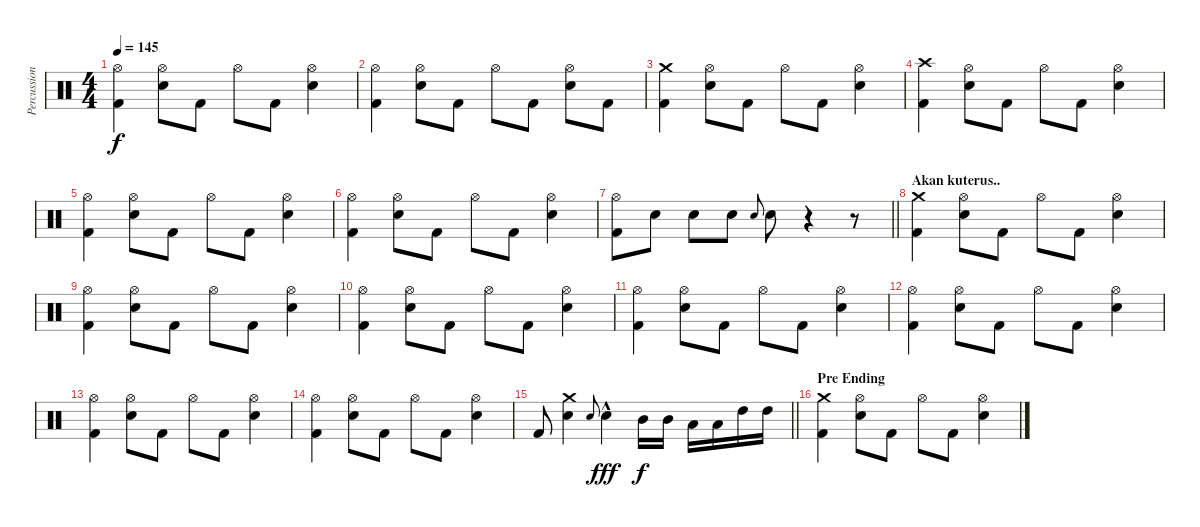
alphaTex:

\track ("Percussion" "Percussion") {instrument percussion}
\staff {score}
\articulation defaults
\ts (4 4)
\tempo 145
\clef neutral
\ks c
("Kick (hit) 2" "Hi-Hat (open)").4{dy f} ("Electric Snare (hit)" "Hi-Hat (open)").8 "Kick (hit) 2".8 "Hi-Hat (open)".8 "Kick (hit) 2".8 ("Electric Snare (hit)" "Hi-Hat (open)").4 |
("Kick (hit) 2" "Hi-Hat (open)").4 ("Electric Snare (hit)" "Hi-Hat (open)").8 "Kick (hit) 2".8 "Hi-Hat (open)".8 "Kick (hit) 2".8 ("Electric Snare (hit)" "Hi-Hat (open)").8 "Kick (hit) 2".8 |
("Kick (hit) 2" "Crash medium (hit)").4 ("Electric Snare (hit)" "Hi-Hat (open)").8 "Kick (hit) 2".8 "Hi-Hat (open)".8 "Kick (hit) 2".8 ("Electric Snare (hit)" "Hi-Hat (open)").4 |
("Kick (hit) 2" "Crash high (hit)").4 ("Electric Snare (hit)" "Hi-Hat (open)").8 "Kick (hit) 2".8 "Hi-Hat (open)".8 "Kick (hit) 2".8 ("Electric Snare (hit)" "Hi-Hat (open)").4 |
("Kick (hit) 2" "Hi-Hat (open)").4 ("Electric Snare (hit)" "Hi-Hat (open)").8 "Kick (hit) 2".8 "Hi-Hat (open)".8 "Kick (hit) 2".8 ("Electric Snare (hit)" "Hi-Hat (open)").4 |
("Kick (hit) 2" "Hi-Hat (open)").4 ("Electric Snare (hit)" "Hi-Hat (open)").8 "Kick (hit) 2".8 "Hi-Hat (open)".8 "Kick (hit) 2".8 ("Electric Snare (hit)" "Hi-Hat (open)").4 |
\barLineRight lightlight
("Kick (hit) 2" "Hi-Hat (open)").8 "Electric Snare (hit)".8 "Electric Snare (hit)".8 "Electric Snare (hit)".8 "Electric Snare (hit)".8{gr onbeat} "Electric Snare (hit)".8 r.4 r.8 |
\section ("" "Akan kuterus..")
("Kick (hit) 2" "Crash medium (hit)").4 ("Electric Snare (hit)" "Hi-Hat (open)").8 "Kick (hit) 2".8 "Hi-Hat (open)".8 "Kick (hit) 2".8 ("Electric Snare (hit)" "Hi-Hat (open)").4 |
("Kick (hit) 2" "Hi-Hat (open)").4 ("Electric Snare (hit)" "Hi-Hat (open)").8 "Kick (hit) 2".8 "Hi-Hat (open)".8 "Kick (hit) 2".8 ("Electric Snare (hit)" "Hi-Hat (open)").4 |
("Kick (hit) 2" "Hi-Hat (open)").4 ("Electric Snare (hit)" "Hi-Hat (open)").8 "Kick (hit) 2".8 "Hi-Hat (open)".8 "Kick (hit) 2".8 ("Electric Snare (hit)" "Hi-Hat (open)").4 |
("Kick (hit) 2" "Hi-Hat (open)").4 ("Electric Snare (hit)" "Hi-Hat (open)").8 "Kick (hit) 2".8 "Hi-Hat (open)".8 "Kick (hit) 2".8 ("Electric Snare (hit)" "Hi-Hat (open)").4 |
("Kick (hit) 2" "Hi-Hat (open)").4 ("Electric Snare (hit)" "Hi-Hat (open)").8 "Kick (hit) 2".8 "Hi-Hat (open)".8 "Kick (hit) 2".8 ("Electric Snare (hit)" "Hi-Hat (open)").4 |
("Kick (hit) 2" "Hi-Hat (open)").4 ("Electric Snare (hit)" "Hi-Hat (open)").8 "Kick (hit) 2".8 "Hi-Hat (open)".8 "Kick (hit) 2".8 ("Electric Snare (hit)" "Hi-Hat (open)").4 |
("Kick (hit) 2" "Hi-Hat (open)").4 ("Electric Snare (hit)" "Hi-Hat (open)").8 "Kick (hit) 2".8 "Hi-Hat (open)".8 "Kick (hit) 2".8 ("Electric Snare (hit)" "Hi-Hat (open)").4 |
\barLineRight lightlight "Kick (hit) 2".8
("Electric Snare (hit)" "Crash medium (hit)").4 "Electric Snare (hit)".8{gr onbeat} "Electric Snare (hit)"{hac}.4{dy fff} "Mid Tom (hit)".16{dy f} "Mid Tom (hit)".16 "Low Tom (hit)".16 "Low Tom (hit)".16 "High Tom (hit)".16 "High Tom (hit)".16 |
\section ("" "Pre Ending")
("Kick (hit) 2" "Crash medium (hit)").4 ("Electric Snare (hit)" "Hi-Hat (open)").8 "Kick (hit) 2".8 "Hi-Hat (open)".8 "Kick (hit) 2".8 ("Electric Snare (hit)" "Hi-Hat (open)").4
